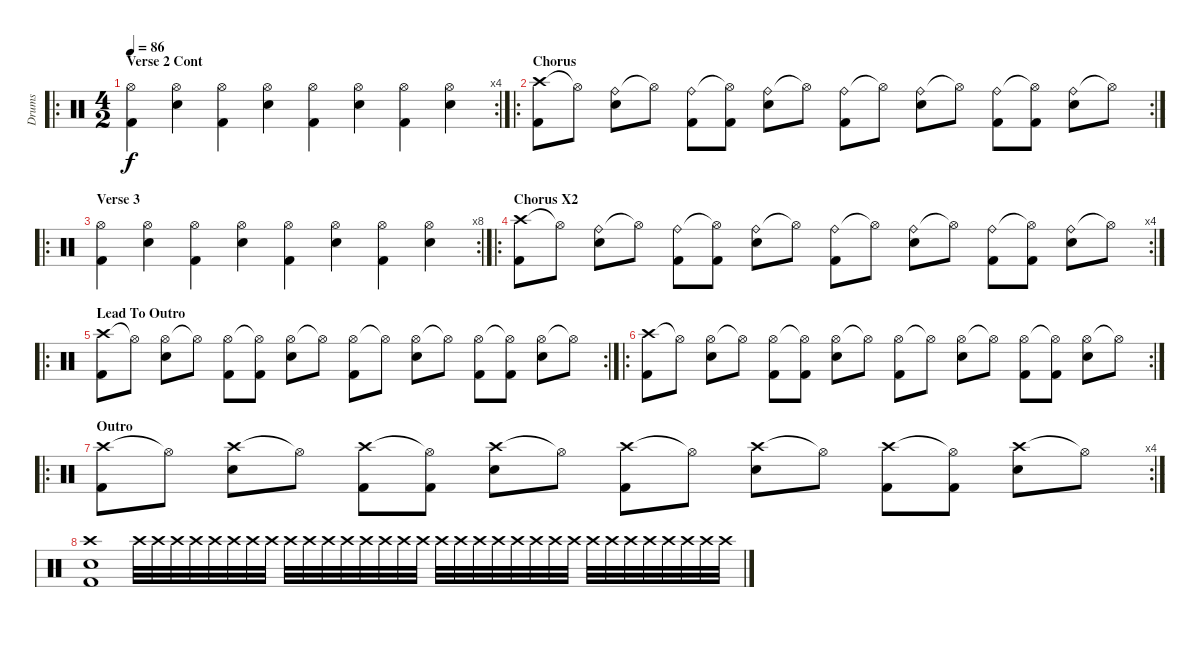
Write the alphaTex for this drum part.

\track ("Drums" "Drums") {instrument percussion}
\staff {score}
\articulation defaults
\ro
\rc 4
\ts (4 2)
\section ("" "Verse 2 Cont")
\tempo 86
\clef neutral
\ks c
("Hi-Hat (open)" "Kick (hit) 2").4{dy f} ("Hi-Hat (open)" "Electric Snare (hit)").4 ("Hi-Hat (open)" "Kick (hit) 2").4 ("Hi-Hat (open)" "Electric Snare (hit)").4 ("Hi-Hat (open)" "Kick (hit) 2").4 ("Hi-Hat (open)" "Electric Snare (hit)").4 ("Hi-Hat (open)" "Kick (hit) 2").4 ("Hi-Hat (open)" "Electric Snare (hit)").4 |
\ro
\rc 2
\section ("" "Chorus")
("Crash high (hit)" "Kick (hit) 2").8 "Hi-Hat (open)"{t}.8 ("Ride (bell)" "Electric Snare (hit)").8 "Hi-Hat (open)"{t}.8 ("Ride (bell)" "Kick (hit) 2").8 ("Hi-Hat (open)"{t} "Kick (hit) 2").8 ("Ride (bell)" "Electric Snare (hit)").8 "Hi-Hat (open)"{t}.8 ("Ride (bell)" "Kick (hit) 2").8 "Hi-Hat (open)"{t}.8 ("Ride (bell)" "Electric Snare (hit)").8 "Hi-Hat (open)"{t}.8 ("Ride (bell)" "Kick (hit) 2").8 ("Hi-Hat (open)"{t} "Kick (hit) 2").8 ("Ride (bell)" "Electric Snare (hit)").8 "Hi-Hat (open)"{t}.8 |
\ro
\rc 8
\section ("" "Verse 3")
("Hi-Hat (open)" "Kick (hit) 2").4 ("Hi-Hat (open)" "Electric Snare (hit)").4 ("Hi-Hat (open)" "Kick (hit) 2").4 ("Hi-Hat (open)" "Electric Snare (hit)").4 ("Hi-Hat (open)" "Kick (hit) 2").4 ("Hi-Hat (open)" "Electric Snare (hit)").4 ("Hi-Hat (open)" "Kick (hit) 2").4 ("Hi-Hat (open)" "Electric Snare (hit)").4 |
\ro
\rc 4
\section ("" "Chorus X2")
("Crash high (hit)" "Kick (hit) 2").8 "Hi-Hat (open)"{t}.8 ("Ride (bell)" "Electric Snare (hit)").8 "Hi-Hat (open)"{t}.8 ("Ride (bell)" "Kick (hit) 2").8 ("Hi-Hat (open)"{t} "Kick (hit) 2").8 ("Ride (bell)" "Electric Snare (hit)").8 "Hi-Hat (open)"{t}.8 ("Ride (bell)" "Kick (hit) 2").8 "Hi-Hat (open)"{t}.8 ("Ride (bell)" "Electric Snare (hit)").8 "Hi-Hat (open)"{t}.8 ("Ride (bell)" "Kick (hit) 2").8 ("Hi-Hat (open)"{t} "Kick (hit) 2").8 ("Ride (bell)" "Electric Snare (hit)").8 "Hi-Hat (open)"{t}.8 |
\ro
\rc 2
\section ("" "Lead To Outro")
("Crash high (hit)" "Kick (hit) 2").8 "Hi-Hat (open)"{t}.8 ("Hi-Hat (open)" "Electric Snare (hit)").8 "Hi-Hat (open)"{t}.8 ("Hi-Hat (open)" "Kick (hit) 2").8 ("Hi-Hat (open)"{t} "Kick (hit) 2").8 ("Hi-Hat (open)" "Electric Snare (hit)").8 "Hi-Hat (open)"{t}.8 ("Hi-Hat (open)" "Kick (hit) 2").8 "Hi-Hat (open)"{t}.8 ("Hi-Hat (open)" "Electric Snare (hit)").8 "Hi-Hat (open)"{t}.8 ("Hi-Hat (open)" "Kick (hit) 2").8 ("Hi-Hat (open)"{t} "Kick (hit) 2").8 ("Hi-Hat (open)" "Electric Snare (hit)").8 "Hi-Hat (open)"{t}.8 |
\ro
\rc 2
("Crash high (hit)" "Kick (hit) 2").8 "Hi-Hat (open)"{t}.8 ("Hi-Hat (open)" "Electric Snare (hit)").8 "Hi-Hat (open)"{t}.8 ("Hi-Hat (open)" "Kick (hit) 2").8 ("Hi-Hat (open)"{t} "Kick (hit) 2").8 ("Hi-Hat (open)" "Electric Snare (hit)").8 "Hi-Hat (open)"{t}.8 ("Hi-Hat (open)" "Kick (hit) 2").8 "Hi-Hat (open)"{t}.8 ("Hi-Hat (open)" "Electric Snare (hit)").8 "Hi-Hat (open)"{t}.8 ("Hi-Hat (open)" "Kick (hit) 2").8 ("Hi-Hat (open)"{t} "Kick (hit) 2").8 ("Hi-Hat (open)" "Electric Snare (hit)").8 "Hi-Hat (open)"{t}.8 |
\ro
\rc 4
\section ("" "Outro")
("Crash high (hit)" "Kick (hit) 2").8 "Hi-Hat (open)"{t}.8 ("Crash high (hit)" "Electric Snare (hit)").8 "Hi-Hat (open)"{t}.8 ("Crash high (hit)" "Kick (hit) 2").8 ("Hi-Hat (open)"{t} "Kick (hit) 2").8 ("Crash high (hit)" "Electric Snare (hit)").8 "Hi-Hat (open)"{t}.8 ("Crash high (hit)" "Kick (hit) 2").8 "Hi-Hat (open)"{t}.8 ("Crash high (hit)" "Electric Snare (hit)").8 "Hi-Hat (open)"{t}.8 ("Crash high (hit)" "Kick (hit) 2").8 ("Hi-Hat (open)"{t} "Kick (hit) 2").8 ("Crash high (hit)" "Electric Snare (hit)").8 "Hi-Hat (open)"{t}.8 |
("Crash high (hit)" "Kick (hit) 2" "Electric Snare (hit)").1 "Crash high (hit)".32 "Crash high (hit)".32 "Crash high (hit)".32 "Crash high (hit)".32 "Crash high (hit)".32 "Crash high (hit)".32 "Crash high (hit)".32 "Crash high (hit)".32 "Crash high (hit)".32 "Crash high (hit)".32 "Crash high (hit)".32 "Crash high (hit)".32 "Crash high (hit)".32 "Crash high (hit)".32 "Crash high (hit)".32 "Crash high (hit)".32 "Crash high (hit)".32 "Crash high (hit)".32 "Crash high (hit)".32 "Crash high (hit)".32 "Crash high (hit)".32 "Crash high (hit)".32 "Crash high (hit)".32 "Crash high (hit)".32 "Crash high (hit)".32 "Crash high (hit)".32 "Crash high (hit)".32 "Crash high (hit)".32 "Crash high (hit)".32 "Crash high (hit)".32 "Crash high (hit)".32 "Crash high (hit)".32
